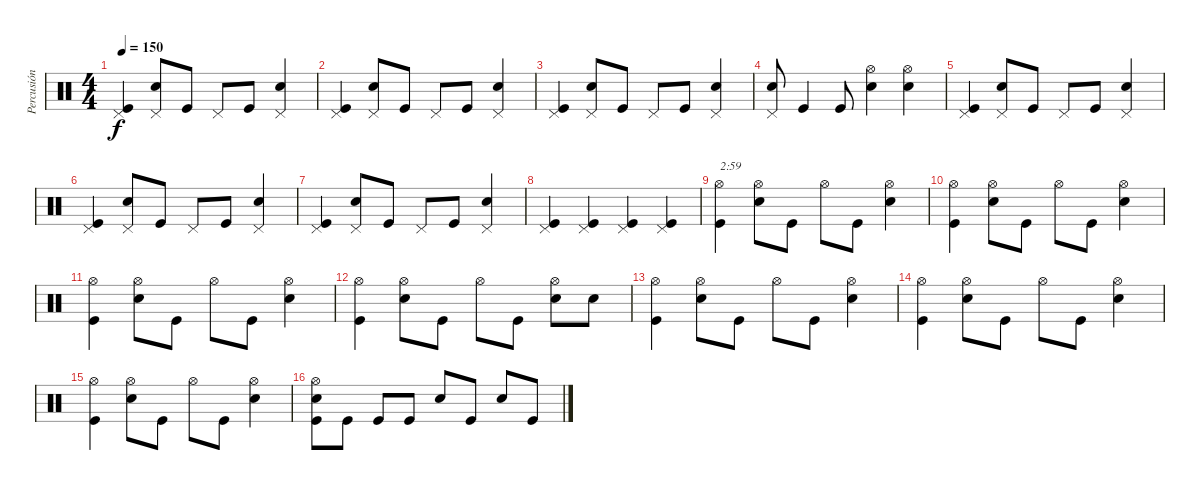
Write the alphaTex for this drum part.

\track ("Percusión" "Percusión") {instrument percussion}
\staff {score}
\articulation defaults
\ts (4 4)
\tempo 150
\clef neutral
\ks c
("Kick (hit)" "Pedal Hi-Hat (hit)").4{dy f} ("Snare (hit) 2" "Pedal Hi-Hat (hit)").8 "Kick (hit)".8 "Pedal Hi-Hat (hit)".8 "Kick (hit)".8 ("Snare (hit) 2" "Pedal Hi-Hat (hit)").4 |
("Kick (hit)" "Pedal Hi-Hat (hit)").4 ("Snare (hit) 2" "Pedal Hi-Hat (hit)").8 "Kick (hit)".8 "Pedal Hi-Hat (hit)".8 "Kick (hit)".8 ("Snare (hit) 2" "Pedal Hi-Hat (hit)").4 |
("Kick (hit)" "Pedal Hi-Hat (hit)").4 ("Snare (hit) 2" "Pedal Hi-Hat (hit)").8 "Kick (hit)".8 "Pedal Hi-Hat (hit)".8 "Kick (hit)".8 ("Snare (hit) 2" "Pedal Hi-Hat (hit)").4 |
("Snare (hit) 2" "Pedal Hi-Hat (hit)").8 "Kick (hit)".4 "Kick (hit)".8 ("Snare (hit) 2" "Hi-Hat (open)").4 ("Snare (hit) 2" "Hi-Hat (open)").4 |
("Kick (hit)" "Pedal Hi-Hat (hit)").4 ("Snare (hit) 2" "Pedal Hi-Hat (hit)").8 "Kick (hit)".8 "Pedal Hi-Hat (hit)".8 "Kick (hit)".8 ("Snare (hit) 2" "Pedal Hi-Hat (hit)").4 |
("Kick (hit)" "Pedal Hi-Hat (hit)").4 ("Snare (hit) 2" "Pedal Hi-Hat (hit)").8 "Kick (hit)".8 "Pedal Hi-Hat (hit)".8 "Kick (hit)".8 ("Snare (hit) 2" "Pedal Hi-Hat (hit)").4 |
("Kick (hit)" "Pedal Hi-Hat (hit)").4 ("Snare (hit) 2" "Pedal Hi-Hat (hit)").8 "Kick (hit)".8 "Pedal Hi-Hat (hit)".8 "Kick (hit)".8 ("Snare (hit) 2" "Pedal Hi-Hat (hit)").4 |
("Kick (hit)" "Pedal Hi-Hat (hit)").4 ("Kick (hit)" "Pedal Hi-Hat (hit)").4 ("Kick (hit)" "Pedal Hi-Hat (hit)").4 ("Kick (hit)" "Pedal Hi-Hat (hit)").4 |
("Kick (hit)" "Hi-Hat (open)").4{txt "2:59"} ("Snare (hit) 2" "Hi-Hat (open)").8 "Kick (hit)".8 "Hi-Hat (open)".8 "Kick (hit)".8 ("Snare (hit) 2" "Hi-Hat (open)").4 |
("Kick (hit)" "Hi-Hat (open)").4 ("Snare (hit) 2" "Hi-Hat (open)").8 "Kick (hit)".8 "Hi-Hat (open)".8 "Kick (hit)".8 ("Snare (hit) 2" "Hi-Hat (open)").4 |
("Kick (hit)" "Hi-Hat (open)").4 ("Snare (hit) 2" "Hi-Hat (open)").8 "Kick (hit)".8 "Hi-Hat (open)".8 "Kick (hit)".8 ("Snare (hit) 2" "Hi-Hat (open)").4 |
("Kick (hit)" "Hi-Hat (open)").4 ("Snare (hit) 2" "Hi-Hat (open)").8 "Kick (hit)".8 "Hi-Hat (open)".8 "Kick (hit)".8 ("Snare (hit) 2" "Hi-Hat (open)").8 "Snare (hit) 2".8 |
("Kick (hit)" "Hi-Hat (open)").4 ("Snare (hit) 2" "Hi-Hat (open)").8 "Kick (hit)".8 "Hi-Hat (open)".8 "Kick (hit)".8 ("Snare (hit) 2" "Hi-Hat (open)").4 |
("Kick (hit)" "Hi-Hat (open)").4 ("Snare (hit) 2" "Hi-Hat (open)").8 "Kick (hit)".8 "Hi-Hat (open)".8 "Kick (hit)".8 ("Snare (hit) 2" "Hi-Hat (open)").4 |
("Kick (hit)" "Hi-Hat (open)").4 ("Snare (hit) 2" "Hi-Hat (open)").8 "Kick (hit)".8 "Hi-Hat (open)".8 "Kick (hit)".8 ("Snare (hit) 2" "Hi-Hat (open)").4 |
("Kick (hit)" "Snare (hit) 2" "Hi-Hat (open)").8 "Kick (hit)".8 "Kick (hit)".8 "Kick (hit)".8 "Snare (hit) 2".8 "Kick (hit)".8 "Snare (hit) 2".8 "Kick (hit)".8
